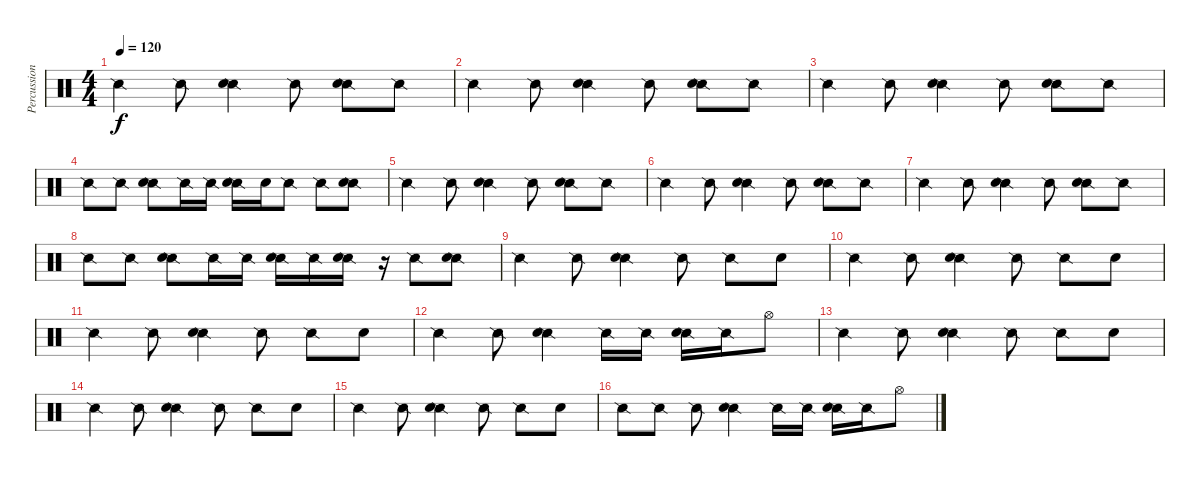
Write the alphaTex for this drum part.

\track ("Percussion" "Percussion") {instrument percussion}
\staff {score}
\articulation defaults
\ts (4 4)
\tempo 120
\clef neutral
\ks c "Snare (side stick) 2".4{dy f} "Snare (side stick) 2".8
("Snare (side stick) 2" "Snare (hit) 2").4 "Snare (side stick) 2".8 ("Snare (side stick) 2" "Electric Snare (hit)").8 "Snare (side stick) 2".8 |
"Snare (side stick) 2".4 "Snare (side stick) 2".8 ("Snare (side stick) 2" "Snare (hit) 2").4 "Snare (side stick) 2".8 ("Snare (side stick) 2" "Electric Snare (hit)").8 "Snare (side stick) 2".8 |
"Snare (side stick) 2".4 "Snare (side stick) 2".8 ("Snare (side stick) 2" "Snare (hit) 2").4 "Snare (side stick) 2".8 ("Snare (side stick) 2" "Electric Snare (hit)").8 "Snare (side stick) 2".8 |
"Snare (side stick) 2".8 "Snare (side stick) 2".8 ("Snare (side stick) 2" "Electric Snare (hit)").8 "Snare (side stick) 2".16 "Snare (side stick) 2".16 ("Snare (side stick) 2" "Snare (hit) 2").16 "Snare (hit) 2".16 "Snare (side stick) 2".8 "Snare (side stick) 2".8 ("Snare (side stick) 2" "Snare (hit) 2").8 |
"Snare (side stick) 2".4 "Snare (side stick) 2".8 ("Snare (side stick) 2" "Snare (hit) 2").4 "Snare (side stick) 2".8 ("Snare (side stick) 2" "Electric Snare (hit)").8 "Snare (side stick) 2".8 |
"Snare (side stick) 2".4 "Snare (side stick) 2".8 ("Snare (side stick) 2" "Snare (hit) 2").4 "Snare (side stick) 2".8 ("Snare (side stick) 2" "Electric Snare (hit)").8 "Snare (side stick) 2".8 |
"Snare (side stick) 2".4 "Snare (side stick) 2".8 ("Snare (side stick) 2" "Snare (hit) 2").4 "Snare (side stick) 2".8 ("Snare (side stick) 2" "Electric Snare (hit)").8 "Snare (side stick) 2".8 |
"Snare (side stick) 2".8 "Snare (side stick) 2".8 ("Snare (side stick) 2" "Electric Snare (hit)").8 "Snare (side stick) 2".16 "Snare (side stick) 2".16 ("Snare (side stick) 2" "Snare (hit) 2").16 "Snare (side stick) 2".16 ("Snare (side stick) 2" "Snare (hit) 2").16 r.16 "Snare (side stick) 2".8 ("Snare (side stick) 2" "Snare (hit) 2").8 |
"Snare (side stick) 2".4 "Snare (side stick) 2".8 ("Snare (side stick) 2" "Snare (hit) 2").4 "Snare (side stick) 2".8 "Snare (side stick) 2".8 "Electric Snare (hit)".8 |
"Snare (side stick) 2".4 "Snare (side stick) 2".8 ("Snare (side stick) 2" "Snare (hit) 2").4 "Snare (side stick) 2".8 "Snare (side stick) 2".8 "Electric Snare (hit)".8 |
"Snare (side stick) 2".4 "Snare (side stick) 2".8 ("Snare (side stick) 2" "Snare (hit) 2").4 "Snare (side stick) 2".8 "Snare (side stick) 2".8 "Electric Snare (hit)".8 |
"Snare (side stick) 2".4 "Snare (side stick) 2".8 ("Snare (side stick) 2" "Snare (hit) 2").4 "Snare (side stick) 2".16 "Snare (side stick) 2".16 ("Snare (side stick) 2" "Electric Snare (hit)").16 "Snare (side stick) 2".16 "Hi-Hat (open)".8 |
"Snare (side stick) 2".4 "Snare (side stick) 2".8 ("Snare (side stick) 2" "Snare (hit) 2").4 "Snare (side stick) 2".8 "Snare (side stick) 2".8 "Electric Snare (hit)".8 |
"Snare (side stick) 2".4 "Snare (side stick) 2".8 ("Snare (side stick) 2" "Snare (hit) 2").4 "Snare (side stick) 2".8 "Snare (side stick) 2".8 "Electric Snare (hit)".8 |
"Snare (side stick) 2".4 "Snare (side stick) 2".8 ("Snare (side stick) 2" "Snare (hit) 2").4 "Snare (side stick) 2".8 "Snare (side stick) 2".8 "Electric Snare (hit)".8 |
"Snare (side stick) 2".8 "Snare (side stick) 2".8 "Snare (side stick) 2".8 ("Snare (side stick) 2" "Snare (hit) 2").4 "Snare (side stick) 2".16 "Snare (side stick) 2".16 ("Snare (side stick) 2" "Electric Snare (hit)").16 "Snare (side stick) 2".16 "Hi-Hat (open)".8
